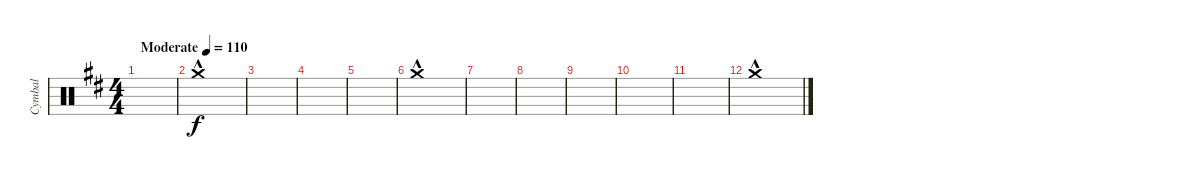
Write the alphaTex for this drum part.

\track ("Cymbal" "Cymbal") {instrument percussion}
\staff {score}
\articulation defaults
\ts (4 4)
\tempo (110 "Moderate")
\clef neutral
\ks d
|
"Crash medium (hit)"{hac}.1 |
|
|
|
"Crash medium (hit)"{hac}.1 |
|
|
|
|
|
"Crash medium (hit)"{hac}.1
